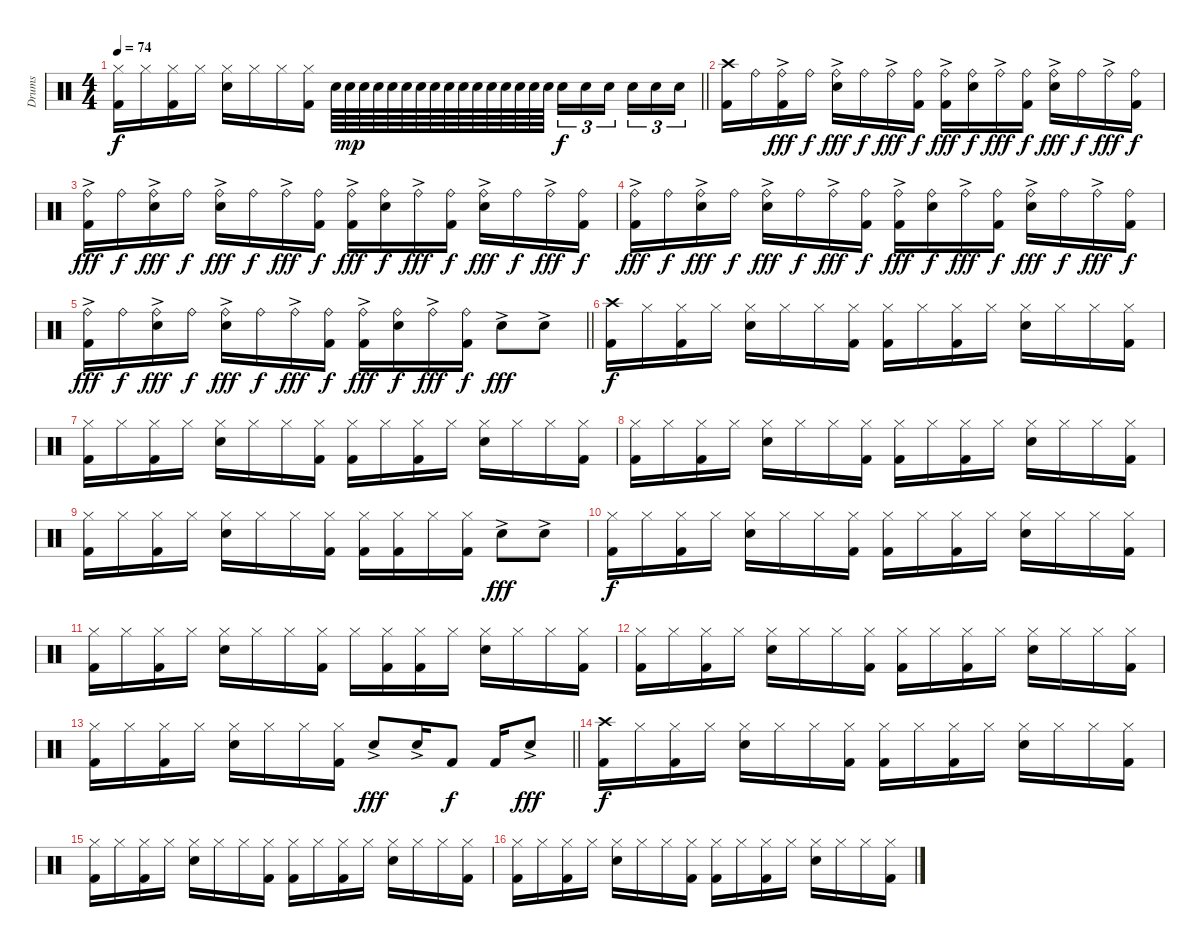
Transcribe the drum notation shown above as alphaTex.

\track ("Drums" "Drums") {instrument percussion}
\staff {score}
\articulation defaults
\ts (4 4)
\tempo 74
\clef neutral
\barLineRight lightlight
\ks aminor
("Hi-Hat (closed)" "Kick (hit) 2").16{dy f} "Hi-Hat (closed)".16 ("Hi-Hat (closed)" "Kick (hit) 2").16 "Hi-Hat (closed)".16 ("Hi-Hat (closed)" "Snare (hit) 2").16 "Hi-Hat (closed)".16 "Hi-Hat (closed)".16 ("Hi-Hat (closed)" "Kick (hit) 2").16 "Snare (hit) 2".64 "Snare (hit) 2".64{dy mp} "Snare (hit) 2".64 "Snare (hit) 2".64 "Snare (hit) 2".64 "Snare (hit) 2".64 "Snare (hit) 2".64 "Snare (hit) 2".64 "Snare (hit) 2".64 "Snare (hit) 2".64 "Snare (hit) 2".64 "Snare (hit) 2".64 "Snare (hit) 2".64 "Snare (hit) 2".64 "Snare (hit) 2".64 "Snare (hit) 2".64 "Snare (hit) 2".16{tu (3 2) dy f} "Snare (hit) 2".16{tu (3 2)} "Snare (hit) 2".16{tu (3 2)} "Snare (hit) 2".16{tu (3 2)} "Snare (hit) 2".16{tu (3 2)} "Snare (hit) 2".16{tu (3 2)} |
("Crash high (hit)" "Kick (hit) 2").16 "Ride (bell)".16 ("Ride (bell)"{ac} "Kick (hit) 2").16{dy fff} "Ride (bell)".16{dy f} ("Ride (bell)"{ac} "Snare (hit) 2").16{dy fff} "Ride (bell)".16{dy f} "Ride (bell)"{ac}.16{dy fff} ("Ride (bell)" "Kick (hit) 2").16{dy f} ("Ride (bell)"{ac} "Kick (hit) 2").16{dy fff} ("Ride (bell)" "Snare (hit) 2").16{dy f} "Ride (bell)"{ac}.16{dy fff} ("Ride (bell)" "Kick (hit) 2").16{dy f} ("Ride (bell)"{ac} "Snare (hit) 2").16{dy fff} "Ride (bell)".16{dy f} "Ride (bell)"{ac}.16{dy fff} ("Ride (bell)" "Kick (hit) 2").16{dy f} |
("Ride (bell)"{ac} "Kick (hit) 2").16{dy fff} "Ride (bell)".16{dy f} ("Ride (bell)"{ac} "Snare (hit) 2").16{dy fff} "Ride (bell)".16{dy f} ("Ride (bell)"{ac} "Snare (hit) 2").16{dy fff} "Ride (bell)".16{dy f} "Ride (bell)"{ac}.16{dy fff} ("Ride (bell)" "Kick (hit) 2").16{dy f} ("Ride (bell)"{ac} "Kick (hit) 2").16{dy fff} ("Ride (bell)" "Snare (hit) 2").16{dy f} "Ride (bell)"{ac}.16{dy fff} ("Ride (bell)" "Kick (hit) 2").16{dy f} ("Ride (bell)"{ac} "Snare (hit) 2").16{dy fff} "Ride (bell)".16{dy f} "Ride (bell)"{ac}.16{dy fff} ("Ride (bell)" "Kick (hit) 2").16{dy f} |
("Ride (bell)"{ac} "Kick (hit) 2").16{dy fff} "Ride (bell)".16{dy f} ("Ride (bell)"{ac} "Snare (hit) 2").16{dy fff} "Ride (bell)".16{dy f} ("Ride (bell)"{ac} "Snare (hit) 2").16{dy fff} "Ride (bell)".16{dy f} "Ride (bell)"{ac}.16{dy fff} ("Ride (bell)" "Kick (hit) 2").16{dy f} ("Ride (bell)"{ac} "Kick (hit) 2").16{dy fff} ("Ride (bell)" "Snare (hit) 2").16{dy f} "Ride (bell)"{ac}.16{dy fff} ("Ride (bell)" "Kick (hit) 2").16{dy f} ("Ride (bell)"{ac} "Snare (hit) 2").16{dy fff} "Ride (bell)".16{dy f} "Ride (bell)"{ac}.16{dy fff} ("Ride (bell)" "Kick (hit) 2").16{dy f} |
\barLineRight lightlight
("Ride (bell)"{ac} "Kick (hit) 2").16{dy fff} "Ride (bell)".16{dy f} ("Ride (bell)"{ac} "Snare (hit) 2").16{dy fff} "Ride (bell)".16{dy f} ("Ride (bell)"{ac} "Snare (hit) 2").16{dy fff} "Ride (bell)".16{dy f} "Ride (bell)"{ac}.16{dy fff} ("Ride (bell)" "Kick (hit) 2").16{dy f} ("Ride (bell)"{ac} "Kick (hit) 2").16{dy fff} ("Ride (bell)" "Snare (hit) 2").16{dy f} "Ride (bell)"{ac}.16{dy fff} ("Ride (bell)" "Kick (hit) 2").16{dy f} "Snare (hit) 2"{ac}.8{dy fff} "Snare (hit) 2"{ac}.8 |
("Crash high (hit)" "Kick (hit) 2").16{dy f} "Hi-Hat (closed)".16 ("Hi-Hat (closed)" "Kick (hit) 2").16 "Hi-Hat (closed)".16 ("Hi-Hat (closed)" "Snare (hit) 2").16 "Hi-Hat (closed)".16 "Hi-Hat (closed)".16 ("Hi-Hat (closed)" "Kick (hit) 2").16 ("Hi-Hat (closed)" "Kick (hit) 2").16 "Hi-Hat (closed)".16 ("Hi-Hat (closed)" "Kick (hit) 2").16 "Hi-Hat (closed)".16 ("Hi-Hat (closed)" "Snare (hit) 2").16 "Hi-Hat (closed)".16 "Hi-Hat (closed)".16 ("Hi-Hat (closed)" "Kick (hit) 2").16 |
("Hi-Hat (closed)" "Kick (hit) 2").16 "Hi-Hat (closed)".16 ("Hi-Hat (closed)" "Kick (hit) 2").16 "Hi-Hat (closed)".16 ("Hi-Hat (closed)" "Snare (hit) 2").16 "Hi-Hat (closed)".16 "Hi-Hat (closed)".16 ("Hi-Hat (closed)" "Kick (hit) 2").16 ("Hi-Hat (closed)" "Kick (hit) 2").16 "Hi-Hat (closed)".16 ("Hi-Hat (closed)" "Kick (hit) 2").16 "Hi-Hat (closed)".16 ("Hi-Hat (closed)" "Snare (hit) 2").16 "Hi-Hat (closed)".16 "Hi-Hat (closed)".16 ("Hi-Hat (closed)" "Kick (hit) 2").16 |
("Hi-Hat (closed)" "Kick (hit) 2").16 "Hi-Hat (closed)".16 ("Hi-Hat (closed)" "Kick (hit) 2").16 "Hi-Hat (closed)".16 ("Hi-Hat (closed)" "Snare (hit) 2").16 "Hi-Hat (closed)".16 "Hi-Hat (closed)".16 ("Hi-Hat (closed)" "Kick (hit) 2").16 ("Hi-Hat (closed)" "Kick (hit) 2").16 "Hi-Hat (closed)".16 ("Hi-Hat (closed)" "Kick (hit) 2").16 "Hi-Hat (closed)".16 ("Hi-Hat (closed)" "Snare (hit) 2").16 "Hi-Hat (closed)".16 "Hi-Hat (closed)".16 ("Hi-Hat (closed)" "Kick (hit) 2").16 |
("Hi-Hat (closed)" "Kick (hit) 2").16 "Hi-Hat (closed)".16 ("Hi-Hat (closed)" "Kick (hit) 2").16 "Hi-Hat (closed)".16 ("Hi-Hat (closed)" "Snare (hit) 2").16 "Hi-Hat (closed)".16 "Hi-Hat (closed)".16 ("Hi-Hat (closed)" "Kick (hit) 2").16 ("Hi-Hat (closed)" "Kick (hit) 2").16 ("Hi-Hat (closed)" "Kick (hit) 2").16 "Hi-Hat (closed)".16 ("Hi-Hat (closed)" "Kick (hit) 2").16 "Snare (hit) 2"{ac}.8{dy fff} "Snare (hit) 2"{ac}.8 |
("Hi-Hat (closed)" "Kick (hit) 2").16{dy f} "Hi-Hat (closed)".16 ("Hi-Hat (closed)" "Kick (hit) 2").16 "Hi-Hat (closed)".16 ("Hi-Hat (closed)" "Snare (hit) 2").16 "Hi-Hat (closed)".16 "Hi-Hat (closed)".16 ("Hi-Hat (closed)" "Kick (hit) 2").16 ("Hi-Hat (closed)" "Kick (hit) 2").16 "Hi-Hat (closed)".16 ("Hi-Hat (closed)" "Kick (hit) 2").16 "Hi-Hat (closed)".16 ("Hi-Hat (closed)" "Snare (hit) 2").16 "Hi-Hat (closed)".16 "Hi-Hat (closed)".16 ("Hi-Hat (closed)" "Kick (hit) 2").16 |
("Hi-Hat (closed)" "Kick (hit) 2").16 "Hi-Hat (closed)".16 ("Hi-Hat (closed)" "Kick (hit) 2").16 "Hi-Hat (closed)".16 ("Hi-Hat (closed)" "Snare (hit) 2").16 "Hi-Hat (closed)".16 "Hi-Hat (closed)".16 ("Hi-Hat (closed)" "Kick (hit) 2").16 "Hi-Hat (closed)".16 ("Hi-Hat (closed)" "Kick (hit) 2").16 ("Hi-Hat (closed)" "Kick (hit) 2").16 "Hi-Hat (closed)".16 ("Hi-Hat (closed)" "Snare (hit) 2").16 "Hi-Hat (closed)".16 "Hi-Hat (closed)".16 ("Hi-Hat (closed)" "Kick (hit) 2").16 |
("Hi-Hat (closed)" "Kick (hit) 2").16 "Hi-Hat (closed)".16 ("Hi-Hat (closed)" "Kick (hit) 2").16 "Hi-Hat (closed)".16 ("Hi-Hat (closed)" "Snare (hit) 2").16 "Hi-Hat (closed)".16 "Hi-Hat (closed)".16 ("Hi-Hat (closed)" "Kick (hit) 2").16 ("Hi-Hat (closed)" "Kick (hit) 2").16 "Hi-Hat (closed)".16 ("Hi-Hat (closed)" "Kick (hit) 2").16 "Hi-Hat (closed)".16 ("Hi-Hat (closed)" "Snare (hit) 2").16 "Hi-Hat (closed)".16 "Hi-Hat (closed)".16 ("Hi-Hat (closed)" "Kick (hit) 2").16 |
\barLineRight lightlight
("Hi-Hat (closed)" "Kick (hit) 2").16 "Hi-Hat (closed)".16 ("Hi-Hat (closed)" "Kick (hit) 2").16 "Hi-Hat (closed)".16 ("Hi-Hat (closed)" "Snare (hit) 2").16 "Hi-Hat (closed)".16 "Hi-Hat (closed)".16 ("Hi-Hat (closed)" "Kick (hit) 2").16 "Snare (hit) 2"{ac}.8{dy fff} "Snare (hit) 2"{ac}.16 "Kick (hit) 2".8{dy f} "Kick (hit) 2".16 "Snare (hit) 2"{ac}.8{dy fff} |
("Crash high (hit)" "Kick (hit) 2").16{dy f} "Hi-Hat (closed)".16 ("Hi-Hat (closed)" "Kick (hit) 2").16 "Hi-Hat (closed)".16 ("Hi-Hat (closed)" "Snare (hit) 2").16 "Hi-Hat (closed)".16 "Hi-Hat (closed)".16 ("Hi-Hat (closed)" "Kick (hit) 2").16 ("Hi-Hat (closed)" "Kick (hit) 2").16 "Hi-Hat (closed)".16 ("Hi-Hat (closed)" "Kick (hit) 2").16 "Hi-Hat (closed)".16 ("Hi-Hat (closed)" "Snare (hit) 2").16 "Hi-Hat (closed)".16 "Hi-Hat (closed)".16 ("Hi-Hat (closed)" "Kick (hit) 2").16 |
("Hi-Hat (closed)" "Kick (hit) 2").16 "Hi-Hat (closed)".16 ("Hi-Hat (closed)" "Kick (hit) 2").16 "Hi-Hat (closed)".16 ("Hi-Hat (closed)" "Snare (hit) 2").16 "Hi-Hat (closed)".16 "Hi-Hat (closed)".16 ("Hi-Hat (closed)" "Kick (hit) 2").16 ("Hi-Hat (closed)" "Kick (hit) 2").16 "Hi-Hat (closed)".16 ("Hi-Hat (closed)" "Kick (hit) 2").16 "Hi-Hat (closed)".16 ("Hi-Hat (closed)" "Snare (hit) 2").16 "Hi-Hat (closed)".16 "Hi-Hat (closed)".16 ("Hi-Hat (closed)" "Kick (hit) 2").16 |
("Hi-Hat (closed)" "Kick (hit) 2").16 "Hi-Hat (closed)".16 ("Hi-Hat (closed)" "Kick (hit) 2").16 "Hi-Hat (closed)".16 ("Hi-Hat (closed)" "Snare (hit) 2").16 "Hi-Hat (closed)".16 "Hi-Hat (closed)".16 ("Hi-Hat (closed)" "Kick (hit) 2").16 ("Hi-Hat (closed)" "Kick (hit) 2").16 "Hi-Hat (closed)".16 ("Hi-Hat (closed)" "Kick (hit) 2").16 "Hi-Hat (closed)".16 ("Hi-Hat (closed)" "Snare (hit) 2").16 "Hi-Hat (closed)".16 "Hi-Hat (closed)".16 ("Hi-Hat (closed)" "Kick (hit) 2").16
